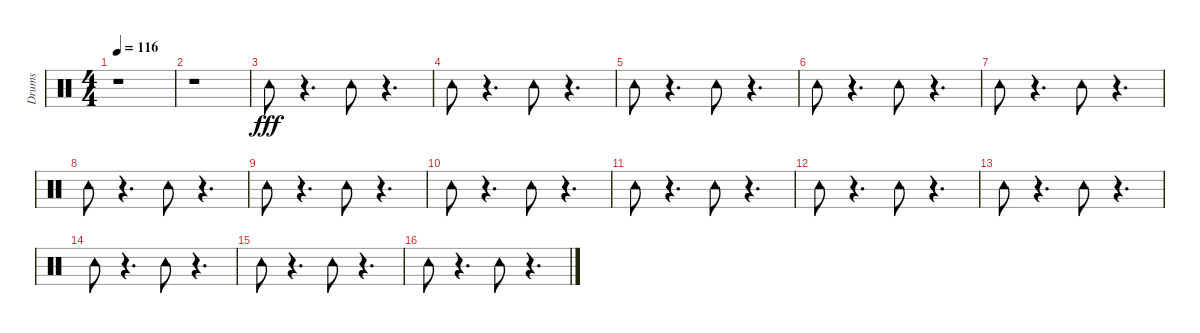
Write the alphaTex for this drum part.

\track ("Drums" "Drums") {instrument percussion}
\staff {score}
\articulation defaults
\ts (4 4)
\tempo 116
\clef neutral
\ks c
r.1{dy fff} |
r.1 |
"Tambourine (hit)".8 r.4{d} "Tambourine (hit)".8 r.4{d} |
"Tambourine (hit)".8 r.4{d} "Tambourine (hit)".8 r.4{d} |
"Tambourine (hit)".8 r.4{d} "Tambourine (hit)".8 r.4{d} |
"Tambourine (hit)".8 r.4{d} "Tambourine (hit)".8 r.4{d} |
"Tambourine (hit)".8 r.4{d} "Tambourine (hit)".8 r.4{d} |
"Tambourine (hit)".8 r.4{d} "Tambourine (hit)".8 r.4{d} |
"Tambourine (hit)".8 r.4{d} "Tambourine (hit)".8 r.4{d} |
"Tambourine (hit)".8 r.4{d} "Tambourine (hit)".8 r.4{d} |
"Tambourine (hit)".8 r.4{d} "Tambourine (hit)".8 r.4{d} |
"Tambourine (hit)".8 r.4{d} "Tambourine (hit)".8 r.4{d} |
"Tambourine (hit)".8 r.4{d} "Tambourine (hit)".8 r.4{d} |
"Tambourine (hit)".8 r.4{d} "Tambourine (hit)".8 r.4{d} |
"Tambourine (hit)".8 r.4{d} "Tambourine (hit)".8 r.4{d} |
"Tambourine (hit)".8 r.4{d} "Tambourine (hit)".8 r.4{d}
